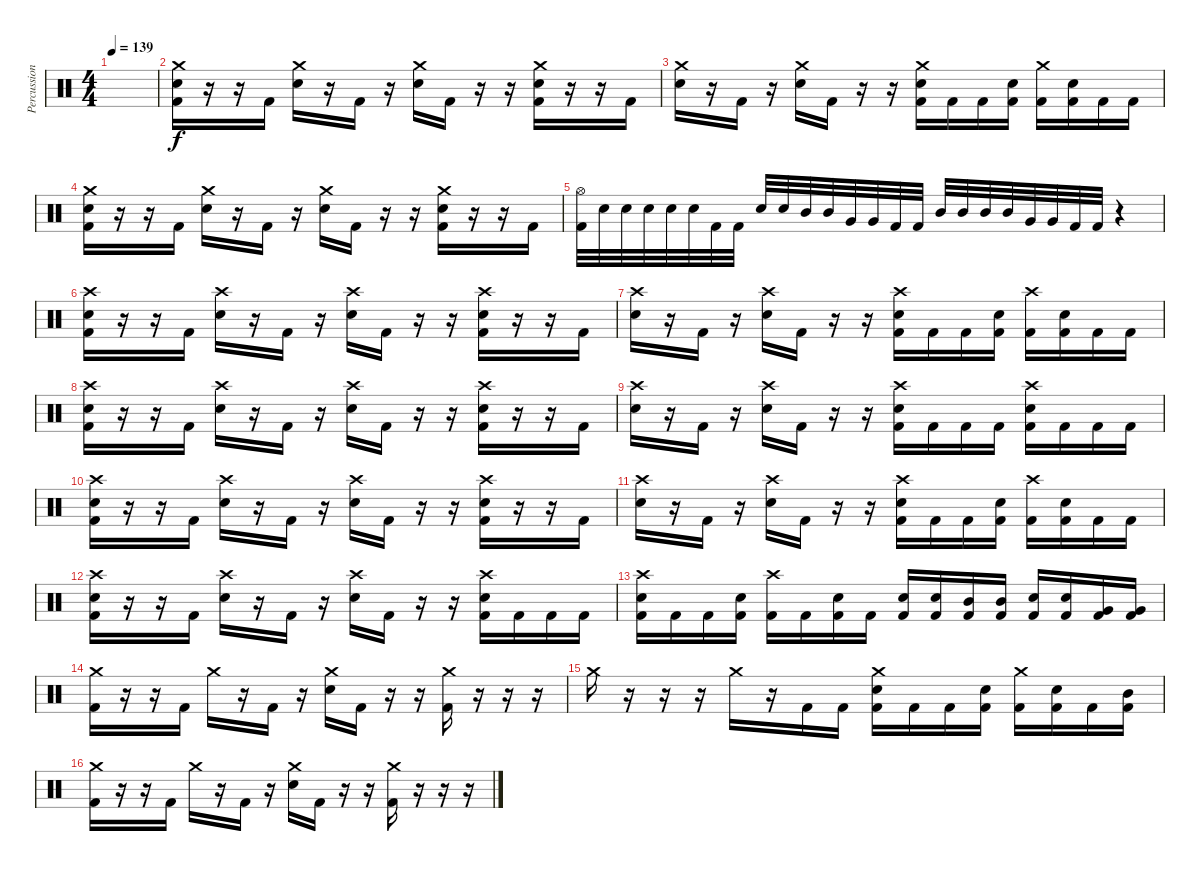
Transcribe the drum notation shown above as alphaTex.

\track ("Percussion" "Percussion") {instrument percussion}
\staff {score}
\articulation defaults
\ts (4 4)
\tempo 139
\clef neutral
\ks c
|
("Kick (hit) 2" "Electric Snare (hit)" "Crash medium (hit)").16 r.16 r.16 "Kick (hit) 2".16 ("Electric Snare (hit)" "Crash medium (hit)").16 r.16 "Kick (hit) 2".16 r.16 ("Electric Snare (hit)" "Crash medium (hit)").16 "Kick (hit) 2".16 r.16 r.16 ("Kick (hit) 2" "Electric Snare (hit)" "Crash medium (hit)").16 r.16 r.16 "Kick (hit) 2".16 |
("Electric Snare (hit)" "Crash medium (hit)").16 r.16 "Kick (hit) 2".16 r.16 ("Electric Snare (hit)" "Crash medium (hit)").16 "Kick (hit) 2".16 r.16 r.16 ("Kick (hit) 2" "Electric Snare (hit)" "Crash medium (hit)").16 "Kick (hit) 2".16 "Kick (hit) 2".16 ("Kick (hit) 2" "Electric Snare (hit)").16 ("Kick (hit) 2" "Crash medium (hit)").16 ("Kick (hit) 2" "Electric Snare (hit)").16 "Kick (hit) 2".16 "Kick (hit) 2".16 |
("Kick (hit) 2" "Electric Snare (hit)" "Crash medium (hit)").16 r.16 r.16 "Kick (hit) 2".16 ("Electric Snare (hit)" "Crash medium (hit)").16 r.16 "Kick (hit) 2".16 r.16 ("Electric Snare (hit)" "Crash medium (hit)").16 "Kick (hit) 2".16 r.16 r.16 ("Kick (hit) 2" "Electric Snare (hit)" "Crash medium (hit)").16 r.16 r.16 "Kick (hit) 2".16 |
("Kick (hit) 2" "Hi-Hat (open)").32 "Electric Snare (hit)".32 "Electric Snare (hit)".32 "Electric Snare (hit)".32 "Electric Snare (hit)".32 "Electric Snare (hit)".32 "Kick (hit) 2".32 "Kick (hit) 2".32 "Electric Snare (hit)".32 "Electric Snare (hit)".32 "Mid Tom (hit)".32 "Mid Tom (hit)".32 "Very Low Tom (hit)".32 "Very Low Tom (hit)".32 "Kick (hit) 2".32 "Kick (hit) 2".32 "Mid Tom (hit)".32 "Mid Tom (hit)".32 "Mid Tom (hit)".32 "Mid Tom (hit)".32 "Very Low Tom (hit)".32 "Very Low Tom (hit)".32 "Kick (hit) 2".32 "Kick (hit) 2".32 r.4 |
("Kick (hit) 2" "Electric Snare (hit)" "Crash high (hit)").16 r.16 r.16 "Kick (hit) 2".16 ("Electric Snare (hit)" "Crash high (hit)").16 r.16 "Kick (hit) 2".16 r.16 ("Electric Snare (hit)" "Crash high (hit)").16 "Kick (hit) 2".16 r.16 r.16 ("Kick (hit) 2" "Electric Snare (hit)" "Crash high (hit)").16 r.16 r.16 "Kick (hit) 2".16 |
("Electric Snare (hit)" "Crash high (hit)").16 r.16 "Kick (hit) 2".16 r.16 ("Electric Snare (hit)" "Crash high (hit)").16 "Kick (hit) 2".16 r.16 r.16 ("Kick (hit) 2" "Electric Snare (hit)" "Crash high (hit)").16 "Kick (hit) 2".16 "Kick (hit) 2".16 ("Kick (hit) 2" "Electric Snare (hit)").16 ("Kick (hit) 2" "Crash high (hit)").16 ("Kick (hit) 2" "Electric Snare (hit)").16 "Kick (hit) 2".16 "Kick (hit) 2".16 |
("Kick (hit) 2" "Electric Snare (hit)" "Crash high (hit)").16 r.16 r.16 "Kick (hit) 2".16 ("Electric Snare (hit)" "Crash high (hit)").16 r.16 "Kick (hit) 2".16 r.16 ("Electric Snare (hit)" "Crash high (hit)").16 "Kick (hit) 2".16 r.16 r.16 ("Kick (hit) 2" "Electric Snare (hit)" "Crash high (hit)").16 r.16 r.16 "Kick (hit) 2".16 |
("Electric Snare (hit)" "Crash high (hit)").16 r.16 "Kick (hit) 2".16 r.16 ("Electric Snare (hit)" "Crash high (hit)").16 "Kick (hit) 2".16 r.16 r.16 ("Kick (hit) 2" "Electric Snare (hit)" "Crash high (hit)").16 "Kick (hit) 2".16 "Kick (hit) 2".16 "Kick (hit) 2".16 ("Kick (hit) 2" "Electric Snare (hit)" "Crash high (hit)").16 "Kick (hit) 2".16 "Kick (hit) 2".16 "Kick (hit) 2".16 |
("Kick (hit) 2" "Electric Snare (hit)" "Crash high (hit)").16 r.16 r.16 "Kick (hit) 2".16 ("Electric Snare (hit)" "Crash high (hit)").16 r.16 "Kick (hit) 2".16 r.16 ("Electric Snare (hit)" "Crash high (hit)").16 "Kick (hit) 2".16 r.16 r.16 ("Kick (hit) 2" "Electric Snare (hit)" "Crash high (hit)").16 r.16 r.16 "Kick (hit) 2".16 |
("Electric Snare (hit)" "Crash high (hit)").16 r.16 "Kick (hit) 2".16 r.16 ("Electric Snare (hit)" "Crash high (hit)").16 "Kick (hit) 2".16 r.16 r.16 ("Kick (hit) 2" "Electric Snare (hit)" "Crash high (hit)").16 "Kick (hit) 2".16 "Kick (hit) 2".16 ("Kick (hit) 2" "Electric Snare (hit)").16 ("Kick (hit) 2" "Crash high (hit)").16 ("Kick (hit) 2" "Electric Snare (hit)").16 "Kick (hit) 2".16 "Kick (hit) 2".16 |
("Kick (hit) 2" "Electric Snare (hit)" "Crash high (hit)").16 r.16 r.16 "Kick (hit) 2".16 ("Electric Snare (hit)" "Crash high (hit)").16 r.16 "Kick (hit) 2".16 r.16 ("Electric Snare (hit)" "Crash high (hit)").16 "Kick (hit) 2".16 r.16 r.16 ("Kick (hit) 2" "Electric Snare (hit)" "Crash high (hit)").16 "Kick (hit) 2".16 "Kick (hit) 2".16 "Kick (hit) 2".16 |
("Kick (hit) 2" "Electric Snare (hit)" "Crash high (hit)").16 "Kick (hit) 2".16 "Kick (hit) 2".16 ("Kick (hit) 2" "Electric Snare (hit)").16 ("Kick (hit) 2" "Crash high (hit)").16 "Kick (hit) 2".16 ("Kick (hit) 2" "Electric Snare (hit)").16 "Kick (hit) 2".16 ("Kick (hit) 2" "Electric Snare (hit)").16 ("Kick (hit) 2" "Electric Snare (hit)").16 ("Kick (hit) 2" "Mid Tom (hit)").16 ("Kick (hit) 2" "Mid Tom (hit)").16 ("Kick (hit) 2" "Electric Snare (hit)").16 ("Kick (hit) 2" "Electric Snare (hit)").16 ("Kick (hit) 2" "Very Low Tom (hit)").16 ("Kick (hit) 2" "Very Low Tom (hit)").16 |
("Kick (hit) 2" "Crash medium (hit)").16 r.16 r.16 "Kick (hit) 2".16 "Crash medium (hit)".16 r.16 "Kick (hit) 2".16 r.16 ("Electric Snare (hit)" "Crash medium (hit)").16 "Kick (hit) 2".16 r.16 r.16 ("Kick (hit) 2" "Crash medium (hit)").16 r.16 r.16 r.16 |
"Crash medium (hit)".16 r.16 r.16 r.16 "Crash medium (hit)".16 r.16 "Kick (hit) 2".16 "Kick (hit) 2".16 ("Kick (hit) 2" "Electric Snare (hit)" "Crash medium (hit)").16 "Kick (hit) 2".16 "Kick (hit) 2".16 ("Kick (hit) 2" "Electric Snare (hit)").16 ("Kick (hit) 2" "Crash medium (hit)").16 ("Kick (hit) 2" "Electric Snare (hit)").16 "Kick (hit) 2".16 ("Kick (hit) 2" "Mid Tom (hit)").16 |
("Kick (hit) 2" "Crash medium (hit)").16 r.16 r.16 "Kick (hit) 2".16 "Crash medium (hit)".16 r.16 "Kick (hit) 2".16 r.16 ("Electric Snare (hit)" "Crash medium (hit)").16 "Kick (hit) 2".16 r.16 r.16 ("Kick (hit) 2" "Crash medium (hit)").16 r.16 r.16 r.16
